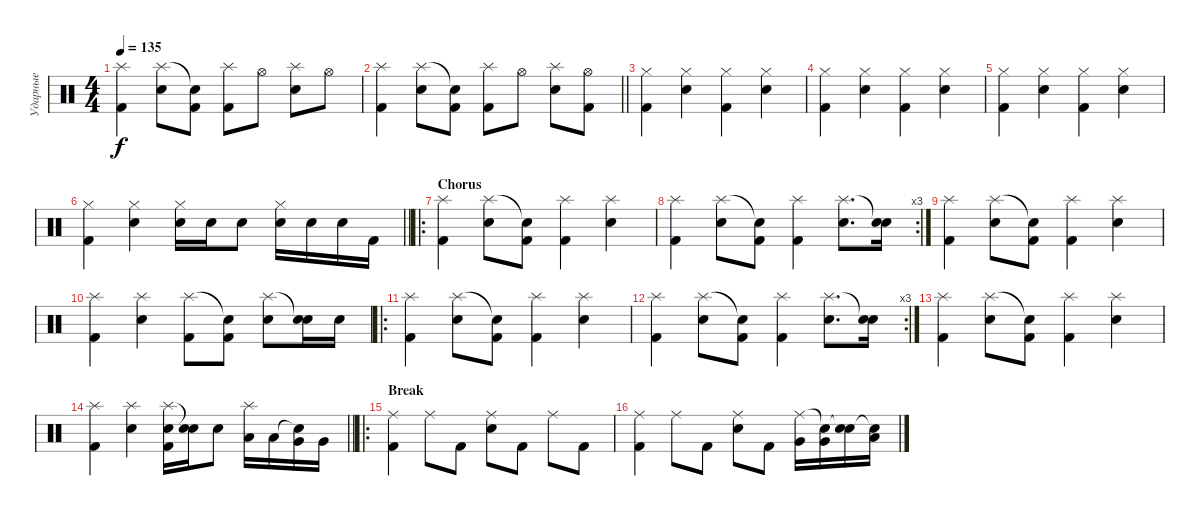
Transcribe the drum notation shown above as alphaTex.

\track ("Ударные" "Ударные") {instrument percussion}
\staff {score}
\articulation defaults
\ts (4 4)
\tempo 135
\clef neutral
\ks c
("Splash (hit)" "Kick (hit) 2").4{dy f} ("Splash (hit)" "Electric Snare (hit)").8 ("Snare (hit)"{t} "Kick (hit) 2").8 ("Splash (hit)" "Kick (hit) 2").8 "Hi-Hat (open)".8 ("Splash (hit)" "Electric Snare (hit)").8 "Hi-Hat (open)".8 |
\barLineRight lightlight
("Splash (hit)" "Kick (hit) 2").4 ("Splash (hit)" "Electric Snare (hit)").8 ("Snare (hit)"{t} "Kick (hit) 2").8 ("Splash (hit)" "Kick (hit) 2").8 "Hi-Hat (open)".8 ("Splash (hit)" "Electric Snare (hit)").8 ("Hi-Hat (open)" "Kick (hit) 2").8 |
\section ("" "")
("Hi-Hat (closed)" "Kick (hit) 2").4 ("Hi-Hat (closed)" "Electric Snare (hit)").4 ("Hi-Hat (closed)" "Kick (hit) 2").4 ("Hi-Hat (closed)" "Electric Snare (hit)").4 |
("Hi-Hat (closed)" "Kick (hit) 2").4 ("Hi-Hat (closed)" "Electric Snare (hit)").4 ("Hi-Hat (closed)" "Kick (hit) 2").4 ("Hi-Hat (closed)" "Electric Snare (hit)").4 |
("Hi-Hat (closed)" "Kick (hit) 2").4 ("Hi-Hat (closed)" "Electric Snare (hit)").4 ("Hi-Hat (closed)" "Kick (hit) 2").4 ("Hi-Hat (closed)" "Electric Snare (hit)").4 |
\barLineRight lightlight
("Hi-Hat (closed)" "Kick (hit) 2").4 ("Hi-Hat (closed)" "Electric Snare (hit)").4 ("Hi-Hat (closed)" "Electric Snare (hit)").16 "Electric Snare (hit)".16 "Electric Snare (hit)".8 ("Hi-Hat (closed)" "Electric Snare (hit)").16 "Electric Snare (hit)".16 "Electric Snare (hit)".16 "Kick (hit) 2".16 |
\ro
\section ("" "Chorus")
("Splash (hit)" "Kick (hit) 2").4 ("Splash (hit)" "Electric Snare (hit)").8 ("Snare (hit)"{t} "Kick (hit) 2").8 ("Splash (hit)" "Kick (hit) 2").4 ("Splash (hit)" "Electric Snare (hit)").4 |
\rc 3
("Splash (hit)" "Kick (hit) 2").4 ("Splash (hit)" "Electric Snare (hit)").8 ("Snare (hit)"{t} "Kick (hit) 2").8 ("Splash (hit)" "Kick (hit) 2").4 ("Splash (hit)" "Electric Snare (hit)").8{d} ("Snare (hit)"{t} "Electric Snare (hit)").16 |
("Splash (hit)" "Kick (hit) 2").4 ("Splash (hit)" "Electric Snare (hit)").8 ("Snare (hit)"{t} "Kick (hit) 2").8 ("Splash (hit)" "Kick (hit) 2").4 ("Splash (hit)" "Electric Snare (hit)").4 |
("Splash (hit)" "Kick (hit) 2").4 ("Splash (hit)" "Electric Snare (hit)").4 ("Splash (hit)" "Kick (hit) 2").8 ("Snare (hit)"{t} "Kick (hit) 2").8 ("Splash (hit)" "Electric Snare (hit)").8 ("Snare (hit)"{t} "Electric Snare (hit)").16 "Electric Snare (hit)".16 |
\ro
("Splash (hit)" "Kick (hit) 2").4 ("Splash (hit)" "Electric Snare (hit)").8 ("Snare (hit)"{t} "Kick (hit) 2").8 ("Splash (hit)" "Kick (hit) 2").4 ("Splash (hit)" "Electric Snare (hit)").4 |
\rc 3
("Splash (hit)" "Kick (hit) 2").4 ("Splash (hit)" "Electric Snare (hit)").8 ("Snare (hit)"{t} "Kick (hit) 2").8 ("Splash (hit)" "Kick (hit) 2").4 ("Splash (hit)" "Electric Snare (hit)").8{d} ("Snare (hit)"{t} "Electric Snare (hit)").16 |
("Splash (hit)" "Kick (hit) 2").4 ("Splash (hit)" "Electric Snare (hit)").8 ("Snare (hit)"{t} "Kick (hit) 2").8 ("Splash (hit)" "Kick (hit) 2").4 ("Splash (hit)" "Electric Snare (hit)").4 |
\barLineRight lightlight
("Splash (hit)" "Kick (hit) 2").4 ("Splash (hit)" "Electric Snare (hit)").4 ("Splash (hit)" "Electric Snare (hit)" "Kick (hit) 2").16 ("Snare (hit)"{t} "Electric Snare (hit)").16 "Electric Snare (hit)".8 ("Splash (hit)" "Low Tom (hit)").16 "Low Tom (hit)".16 ("Snare (hit)"{t} "Very Low Tom (hit)").16 "Very Low Tom (hit)".16 |
\ro
\section ("" "Break")
("Ride (middle)" "Kick (hit) 2").4 "Ride (middle)".8 "Kick (hit) 2".8 ("Ride (middle)" "Electric Snare (hit)").8 "Kick (hit) 2".8 "Ride (middle)".8 "Kick (hit) 2".8 |
("Ride (middle)" "Kick (hit) 2").4 "Ride (middle)".8 "Kick (hit) 2".8 ("Ride (middle)" "Electric Snare (hit)").8 "Kick (hit) 2".8 ("Ride (middle)" "Very Low Tom (hit)").16 ("Snare (hit)"{t} "Very Low Tom (hit)").16 ("Snare (hit)"{t} "Electric Snare (hit)").16 ("Snare (hit)"{t} "Low Floor Tom (hit)").16
